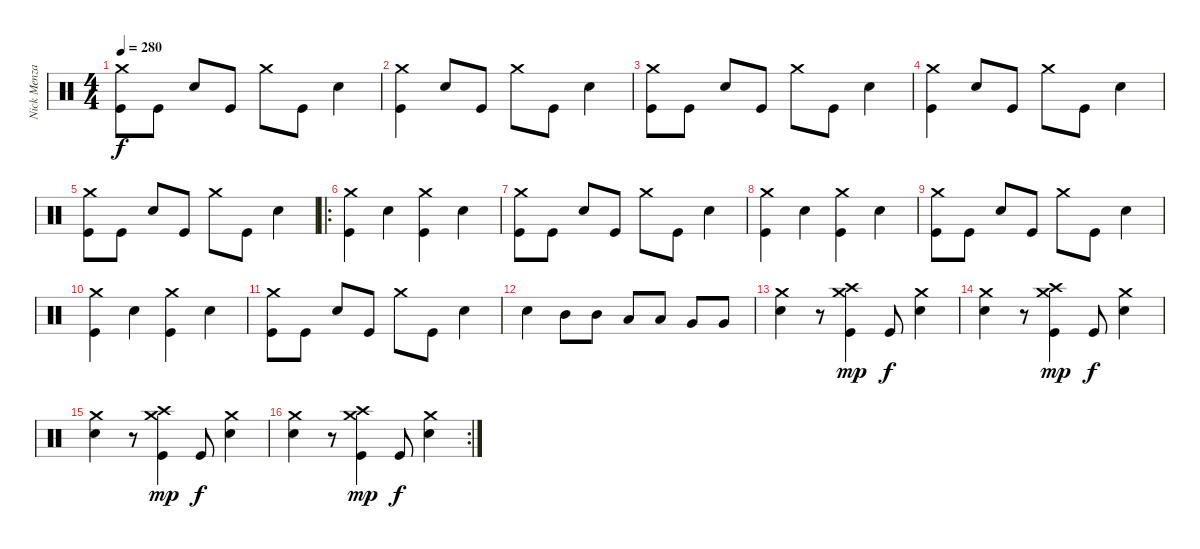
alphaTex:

\track ("Nick Menza" "Nick Menza") {instrument percussion}
\staff {score}
\articulation defaults
\ts (4 4)
\tempo 280
\clef neutral
\ks c
("Crash medium (hit)" "Kick (hit)").8{dy f} "Kick (hit)".8 "Snare (hit) 2".8 "Kick (hit)".8 "Crash medium (hit)".8 "Kick (hit)".8 "Snare (hit) 2".4 |
("Crash medium (hit)" "Kick (hit)").4 "Snare (hit) 2".8 "Kick (hit)".8 "Crash medium (hit)".8 "Kick (hit)".8 "Snare (hit) 2".4 |
("Crash medium (hit)" "Kick (hit)").8 "Kick (hit)".8 "Snare (hit) 2".8 "Kick (hit)".8 "Crash medium (hit)".8 "Kick (hit)".8 "Snare (hit) 2".4 |
("Crash medium (hit)" "Kick (hit)").4 "Snare (hit) 2".8 "Kick (hit)".8 "Crash medium (hit)".8 "Kick (hit)".8 "Snare (hit) 2".4 |
("Crash medium (hit)" "Kick (hit)").8 "Kick (hit)".8 "Snare (hit) 2".8 "Kick (hit)".8 "Crash medium (hit)".8 "Kick (hit)".8 "Snare (hit) 2".4 |
\ro
("Crash medium (hit)" "Kick (hit)").4 "Snare (hit) 2".4 ("Crash medium (hit)" "Kick (hit)").4 "Snare (hit) 2".4 |
("Crash medium (hit)" "Kick (hit)").8 "Kick (hit)".8 "Snare (hit) 2".8 "Kick (hit)".8 "Crash medium (hit)".8 "Kick (hit)".8 "Snare (hit) 2".4 |
("Crash medium (hit)" "Kick (hit)").4 "Snare (hit) 2".4 ("Crash medium (hit)" "Kick (hit)").4 "Snare (hit) 2".4 |
("Crash medium (hit)" "Kick (hit)").8 "Kick (hit)".8 "Snare (hit) 2".8 "Kick (hit)".8 "Crash medium (hit)".8 "Kick (hit)".8 "Snare (hit) 2".4 |
("Crash medium (hit)" "Kick (hit)").4 "Snare (hit) 2".4 ("Crash medium (hit)" "Kick (hit)").4 "Snare (hit) 2".4 |
("Crash medium (hit)" "Kick (hit)").8 "Kick (hit)".8 "Snare (hit) 2".8 "Kick (hit)".8 "Crash medium (hit)".8 "Kick (hit)".8 "Snare (hit) 2".4 |
"Snare (hit) 2".4 "Mid Tom (hit)".8 "Mid Tom (hit)".8 "Low Tom (hit)".8 "Low Tom (hit)".8 "Very Low Tom (hit)".8 "Very Low Tom (hit)".8 |
("Crash medium (hit)" "Snare (hit) 2").4 r.8 ("Crash high (hit)" "Crash medium (hit)" "Kick (hit)").4{dy mp} "Kick (hit)".8{dy f} ("Crash medium (hit)" "Snare (hit) 2").4 |
("Crash medium (hit)" "Snare (hit) 2").4 r.8 ("Crash high (hit)" "Crash medium (hit)" "Kick (hit)").4{dy mp} "Kick (hit)".8{dy f} ("Crash medium (hit)" "Snare (hit) 2").4 |
("Crash medium (hit)" "Snare (hit) 2").4 r.8 ("Crash high (hit)" "Crash medium (hit)" "Kick (hit)").4{dy mp} "Kick (hit)".8{dy f} ("Crash medium (hit)" "Snare (hit) 2").4 |
\rc 2
("Crash medium (hit)" "Snare (hit) 2").4 r.8 ("Crash high (hit)" "Crash medium (hit)" "Kick (hit)").4{dy mp} "Kick (hit)".8{dy f} ("Crash medium (hit)" "Snare (hit) 2").4
